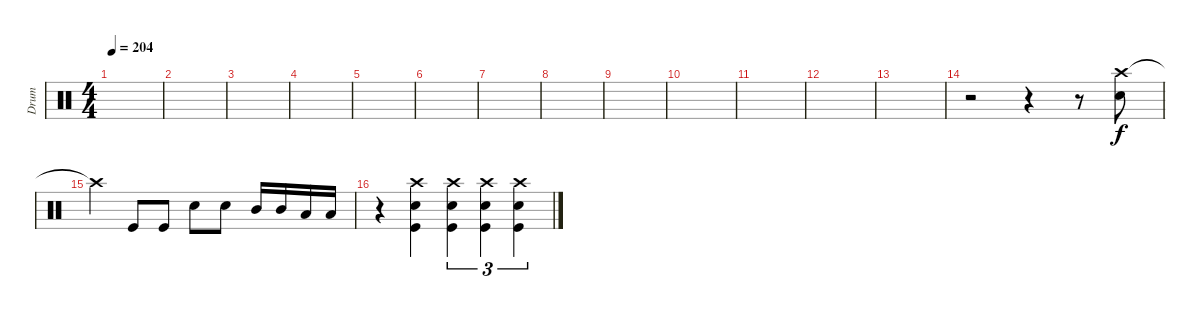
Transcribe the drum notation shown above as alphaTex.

\track ("Drum" "Drum") {instrument percussion}
\staff {score}
\articulation defaults
\ts (4 4)
\tempo 204
\clef neutral
\ks c
|
|
|
|
|
|
|
|
|
|
|
|
|
r.2 r.4 r.8 ("Crash high (hit)" "Snare (hit) 2").8 |
"Crash high (hit)"{t}.4 "Kick (hit)".8 "Kick (hit)".8 "Snare (hit) 2".8 "Snare (hit) 2".8 "Mid Tom (hit)".16 "Mid Tom (hit)".16 "Low Tom (hit)".16 "Low Tom (hit)".16 |
r.4 ("Crash high (hit)" "Snare (hit) 2" "Kick (hit)").4 ("Crash high (hit)" "Snare (hit) 2" "Kick (hit)").4{tu (3 2)} ("Crash high (hit)" "Snare (hit) 2" "Kick (hit)").4{tu (3 2)} ("Crash high (hit)" "Snare (hit) 2" "Kick (hit)").4{tu (3 2)}
